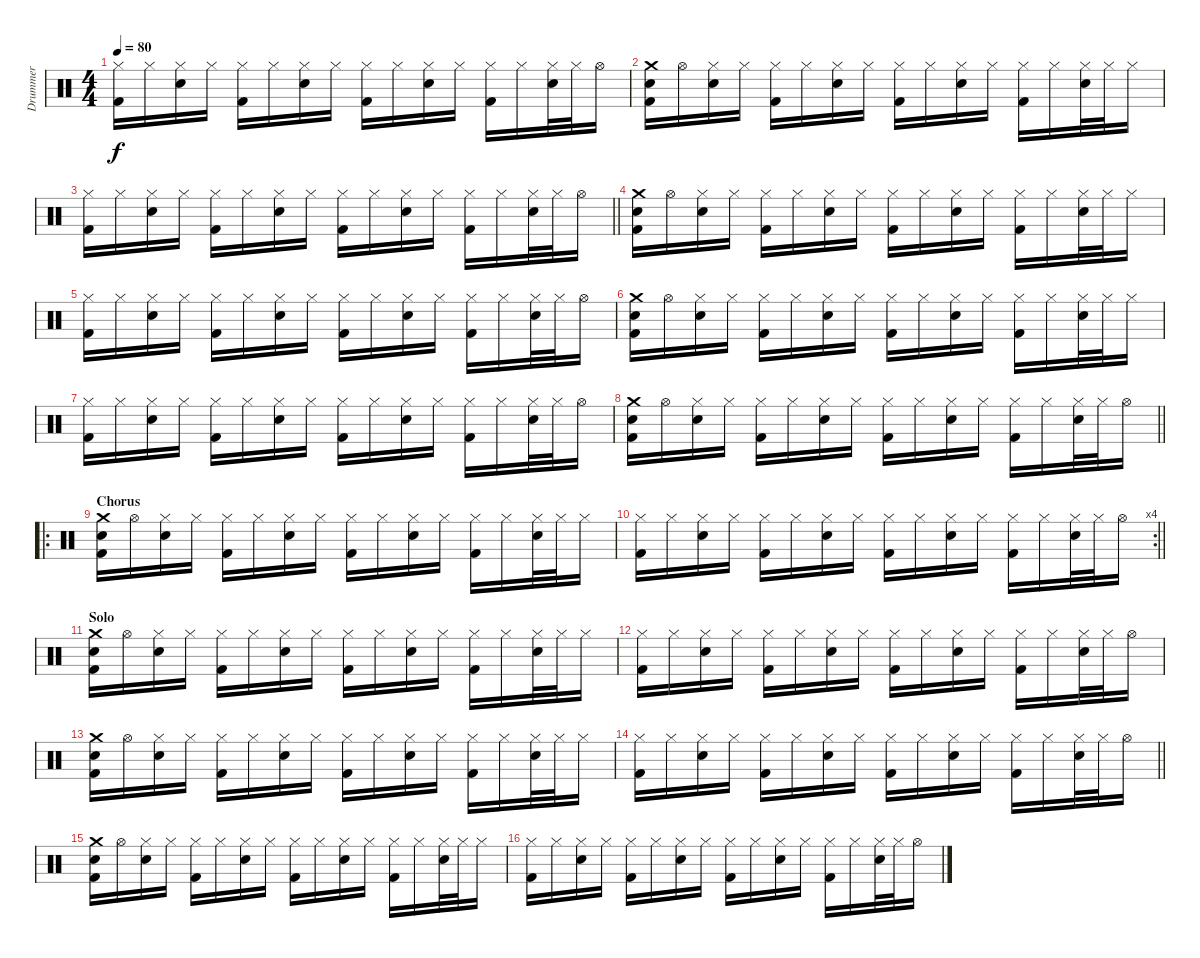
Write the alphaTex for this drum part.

\track ("Drummer" "Drummer") {instrument percussion}
\staff {score}
\articulation defaults
\ts (4 4)
\tempo 80
\clef neutral
\ks c
("Kick (hit) 2" "Hi-Hat (closed)").16{dy f} "Hi-Hat (closed)".16 ("Electric Snare (hit)" "Hi-Hat (closed)").16 "Hi-Hat (closed)".16 ("Kick (hit) 2" "Hi-Hat (closed)").16 "Hi-Hat (closed)".16 ("Electric Snare (hit)" "Hi-Hat (closed)").16 "Hi-Hat (closed)".16 ("Kick (hit) 2" "Hi-Hat (closed)").16 "Hi-Hat (closed)".16 ("Electric Snare (hit)" "Hi-Hat (closed)").16 "Hi-Hat (closed)".16 ("Kick (hit) 2" "Hi-Hat (closed)").16 "Hi-Hat (closed)".16 ("Electric Snare (hit)" "Hi-Hat (closed)").32 "Hi-Hat (closed)".32 "Hi-Hat (open)".16 |
("Kick (hit) 2" "Electric Snare (hit)" "Crash medium (hit)").16 "Hi-Hat (open)".16 ("Electric Snare (hit)" "Hi-Hat (closed)").16 "Hi-Hat (closed)".16 ("Kick (hit) 2" "Hi-Hat (closed)").16 "Hi-Hat (closed)".16 ("Electric Snare (hit)" "Hi-Hat (closed)").16 "Hi-Hat (closed)".16 ("Kick (hit) 2" "Hi-Hat (closed)").16 "Hi-Hat (closed)".16 ("Electric Snare (hit)" "Hi-Hat (closed)").16 "Hi-Hat (closed)".16 ("Kick (hit) 2" "Hi-Hat (closed)").16 "Hi-Hat (closed)".16 ("Electric Snare (hit)" "Hi-Hat (closed)").32 "Hi-Hat (closed)".32 "Hi-Hat (closed)".16 |
\barLineRight lightlight
("Kick (hit) 2" "Hi-Hat (closed)").16 "Hi-Hat (closed)".16 ("Electric Snare (hit)" "Hi-Hat (closed)").16 "Hi-Hat (closed)".16 ("Kick (hit) 2" "Hi-Hat (closed)").16 "Hi-Hat (closed)".16 ("Electric Snare (hit)" "Hi-Hat (closed)").16 "Hi-Hat (closed)".16 ("Kick (hit) 2" "Hi-Hat (closed)").16 "Hi-Hat (closed)".16 ("Electric Snare (hit)" "Hi-Hat (closed)").16 "Hi-Hat (closed)".16 ("Kick (hit) 2" "Hi-Hat (closed)").16 "Hi-Hat (closed)".16 ("Electric Snare (hit)" "Hi-Hat (closed)").32 "Hi-Hat (closed)".32 "Hi-Hat (open)".16 |
("Kick (hit) 2" "Electric Snare (hit)" "Crash medium (hit)").16 "Hi-Hat (open)".16 ("Electric Snare (hit)" "Hi-Hat (closed)").16 "Hi-Hat (closed)".16 ("Kick (hit) 2" "Hi-Hat (closed)").16 "Hi-Hat (closed)".16 ("Electric Snare (hit)" "Hi-Hat (closed)").16 "Hi-Hat (closed)".16 ("Kick (hit) 2" "Hi-Hat (closed)").16 "Hi-Hat (closed)".16 ("Electric Snare (hit)" "Hi-Hat (closed)").16 "Hi-Hat (closed)".16 ("Kick (hit) 2" "Hi-Hat (closed)").16 "Hi-Hat (closed)".16 ("Electric Snare (hit)" "Hi-Hat (closed)").32 "Hi-Hat (closed)".32 "Hi-Hat (closed)".16 |
("Kick (hit) 2" "Hi-Hat (closed)").16 "Hi-Hat (closed)".16 ("Electric Snare (hit)" "Hi-Hat (closed)").16 "Hi-Hat (closed)".16 ("Kick (hit) 2" "Hi-Hat (closed)").16 "Hi-Hat (closed)".16 ("Electric Snare (hit)" "Hi-Hat (closed)").16 "Hi-Hat (closed)".16 ("Kick (hit) 2" "Hi-Hat (closed)").16 "Hi-Hat (closed)".16 ("Electric Snare (hit)" "Hi-Hat (closed)").16 "Hi-Hat (closed)".16 ("Kick (hit) 2" "Hi-Hat (closed)").16 "Hi-Hat (closed)".16 ("Electric Snare (hit)" "Hi-Hat (closed)").32 "Hi-Hat (closed)".32 "Hi-Hat (open)".16 |
("Kick (hit) 2" "Electric Snare (hit)" "Crash medium (hit)").16 "Hi-Hat (open)".16 ("Electric Snare (hit)" "Hi-Hat (closed)").16 "Hi-Hat (closed)".16 ("Kick (hit) 2" "Hi-Hat (closed)").16 "Hi-Hat (closed)".16 ("Electric Snare (hit)" "Hi-Hat (closed)").16 "Hi-Hat (closed)".16 ("Kick (hit) 2" "Hi-Hat (closed)").16 "Hi-Hat (closed)".16 ("Electric Snare (hit)" "Hi-Hat (closed)").16 "Hi-Hat (closed)".16 ("Kick (hit) 2" "Hi-Hat (closed)").16 "Hi-Hat (closed)".16 ("Electric Snare (hit)" "Hi-Hat (closed)").32 "Hi-Hat (closed)".32 "Hi-Hat (closed)".16 |
("Kick (hit) 2" "Hi-Hat (closed)").16 "Hi-Hat (closed)".16 ("Electric Snare (hit)" "Hi-Hat (closed)").16 "Hi-Hat (closed)".16 ("Kick (hit) 2" "Hi-Hat (closed)").16 "Hi-Hat (closed)".16 ("Electric Snare (hit)" "Hi-Hat (closed)").16 "Hi-Hat (closed)".16 ("Kick (hit) 2" "Hi-Hat (closed)").16 "Hi-Hat (closed)".16 ("Electric Snare (hit)" "Hi-Hat (closed)").16 "Hi-Hat (closed)".16 ("Kick (hit) 2" "Hi-Hat (closed)").16 "Hi-Hat (closed)".16 ("Electric Snare (hit)" "Hi-Hat (closed)").32 "Hi-Hat (closed)".32 "Hi-Hat (open)".16 |
\barLineRight lightlight
("Kick (hit) 2" "Electric Snare (hit)" "Crash medium (hit)").16 "Hi-Hat (open)".16 ("Electric Snare (hit)" "Hi-Hat (closed)").16 "Hi-Hat (closed)".16 ("Kick (hit) 2" "Hi-Hat (closed)").16 "Hi-Hat (closed)".16 ("Electric Snare (hit)" "Hi-Hat (closed)").16 "Hi-Hat (closed)".16 ("Kick (hit) 2" "Hi-Hat (closed)").16 "Hi-Hat (closed)".16 ("Electric Snare (hit)" "Hi-Hat (closed)").16 "Hi-Hat (closed)".16 ("Kick (hit) 2" "Hi-Hat (closed)").16 "Hi-Hat (closed)".16 ("Electric Snare (hit)" "Hi-Hat (closed)").32 "Hi-Hat (closed)".32 "Hi-Hat (open)".16 |
\ro
\section ("" "Chorus")
("Kick (hit) 2" "Electric Snare (hit)" "Crash medium (hit)").16 "Hi-Hat (open)".16 ("Electric Snare (hit)" "Hi-Hat (closed)").16 "Hi-Hat (closed)".16 ("Kick (hit) 2" "Hi-Hat (closed)").16 "Hi-Hat (closed)".16 ("Electric Snare (hit)" "Hi-Hat (closed)").16 "Hi-Hat (closed)".16 ("Kick (hit) 2" "Hi-Hat (closed)").16 "Hi-Hat (closed)".16 ("Electric Snare (hit)" "Hi-Hat (closed)").16 "Hi-Hat (closed)".16 ("Kick (hit) 2" "Hi-Hat (closed)").16 "Hi-Hat (closed)".16 ("Electric Snare (hit)" "Hi-Hat (closed)").32 "Hi-Hat (closed)".32 "Hi-Hat (closed)".16 |
\rc 4
\barLineRight lightlight
("Kick (hit) 2" "Hi-Hat (closed)").16 "Hi-Hat (closed)".16 ("Electric Snare (hit)" "Hi-Hat (closed)").16 "Hi-Hat (closed)".16 ("Kick (hit) 2" "Hi-Hat (closed)").16 "Hi-Hat (closed)".16 ("Electric Snare (hit)" "Hi-Hat (closed)").16 "Hi-Hat (closed)".16 ("Kick (hit) 2" "Hi-Hat (closed)").16 "Hi-Hat (closed)".16 ("Electric Snare (hit)" "Hi-Hat (closed)").16 "Hi-Hat (closed)".16 ("Kick (hit) 2" "Hi-Hat (closed)").16 "Hi-Hat (closed)".16 ("Electric Snare (hit)" "Hi-Hat (closed)").32 "Hi-Hat (closed)".32 "Hi-Hat (open)".16 |
\section ("" "Solo")
("Kick (hit) 2" "Electric Snare (hit)" "Crash medium (hit)").16 "Hi-Hat (open)".16 ("Electric Snare (hit)" "Hi-Hat (closed)").16 "Hi-Hat (closed)".16 ("Kick (hit) 2" "Hi-Hat (closed)").16 "Hi-Hat (closed)".16 ("Electric Snare (hit)" "Hi-Hat (closed)").16 "Hi-Hat (closed)".16 ("Kick (hit) 2" "Hi-Hat (closed)").16 "Hi-Hat (closed)".16 ("Electric Snare (hit)" "Hi-Hat (closed)").16 "Hi-Hat (closed)".16 ("Kick (hit) 2" "Hi-Hat (closed)").16 "Hi-Hat (closed)".16 ("Electric Snare (hit)" "Hi-Hat (closed)").32 "Hi-Hat (closed)".32 "Hi-Hat (closed)".16 |
("Kick (hit) 2" "Hi-Hat (closed)").16 "Hi-Hat (closed)".16 ("Electric Snare (hit)" "Hi-Hat (closed)").16 "Hi-Hat (closed)".16 ("Kick (hit) 2" "Hi-Hat (closed)").16 "Hi-Hat (closed)".16 ("Electric Snare (hit)" "Hi-Hat (closed)").16 "Hi-Hat (closed)".16 ("Kick (hit) 2" "Hi-Hat (closed)").16 "Hi-Hat (closed)".16 ("Electric Snare (hit)" "Hi-Hat (closed)").16 "Hi-Hat (closed)".16 ("Kick (hit) 2" "Hi-Hat (closed)").16 "Hi-Hat (closed)".16 ("Electric Snare (hit)" "Hi-Hat (closed)").32 "Hi-Hat (closed)".32 "Hi-Hat (open)".16 |
("Kick (hit) 2" "Electric Snare (hit)" "Crash medium (hit)").16 "Hi-Hat (open)".16 ("Electric Snare (hit)" "Hi-Hat (closed)").16 "Hi-Hat (closed)".16 ("Kick (hit) 2" "Hi-Hat (closed)").16 "Hi-Hat (closed)".16 ("Electric Snare (hit)" "Hi-Hat (closed)").16 "Hi-Hat (closed)".16 ("Kick (hit) 2" "Hi-Hat (closed)").16 "Hi-Hat (closed)".16 ("Electric Snare (hit)" "Hi-Hat (closed)").16 "Hi-Hat (closed)".16 ("Kick (hit) 2" "Hi-Hat (closed)").16 "Hi-Hat (closed)".16 ("Electric Snare (hit)" "Hi-Hat (closed)").32 "Hi-Hat (closed)".32 "Hi-Hat (closed)".16 |
\barLineRight lightlight
("Kick (hit) 2" "Hi-Hat (closed)").16 "Hi-Hat (closed)".16 ("Electric Snare (hit)" "Hi-Hat (closed)").16 "Hi-Hat (closed)".16 ("Kick (hit) 2" "Hi-Hat (closed)").16 "Hi-Hat (closed)".16 ("Electric Snare (hit)" "Hi-Hat (closed)").16 "Hi-Hat (closed)".16 ("Kick (hit) 2" "Hi-Hat (closed)").16 "Hi-Hat (closed)".16 ("Electric Snare (hit)" "Hi-Hat (closed)").16 "Hi-Hat (closed)".16 ("Kick (hit) 2" "Hi-Hat (closed)").16 "Hi-Hat (closed)".16 ("Electric Snare (hit)" "Hi-Hat (closed)").32 "Hi-Hat (closed)".32 "Hi-Hat (open)".16 |
("Kick (hit) 2" "Electric Snare (hit)" "Crash medium (hit)").16 "Hi-Hat (open)".16 ("Electric Snare (hit)" "Hi-Hat (closed)").16 "Hi-Hat (closed)".16 ("Kick (hit) 2" "Hi-Hat (closed)").16 "Hi-Hat (closed)".16 ("Electric Snare (hit)" "Hi-Hat (closed)").16 "Hi-Hat (closed)".16 ("Kick (hit) 2" "Hi-Hat (closed)").16 "Hi-Hat (closed)".16 ("Electric Snare (hit)" "Hi-Hat (closed)").16 "Hi-Hat (closed)".16 ("Kick (hit) 2" "Hi-Hat (closed)").16 "Hi-Hat (closed)".16 ("Electric Snare (hit)" "Hi-Hat (closed)").32 "Hi-Hat (closed)".32 "Hi-Hat (closed)".16 |
("Kick (hit) 2" "Hi-Hat (closed)").16 "Hi-Hat (closed)".16 ("Electric Snare (hit)" "Hi-Hat (closed)").16 "Hi-Hat (closed)".16 ("Kick (hit) 2" "Hi-Hat (closed)").16 "Hi-Hat (closed)".16 ("Electric Snare (hit)" "Hi-Hat (closed)").16 "Hi-Hat (closed)".16 ("Kick (hit) 2" "Hi-Hat (closed)").16 "Hi-Hat (closed)".16 ("Electric Snare (hit)" "Hi-Hat (closed)").16 "Hi-Hat (closed)".16 ("Kick (hit) 2" "Hi-Hat (closed)").16 "Hi-Hat (closed)".16 ("Electric Snare (hit)" "Hi-Hat (closed)").32 "Hi-Hat (closed)".32 "Hi-Hat (open)".16
